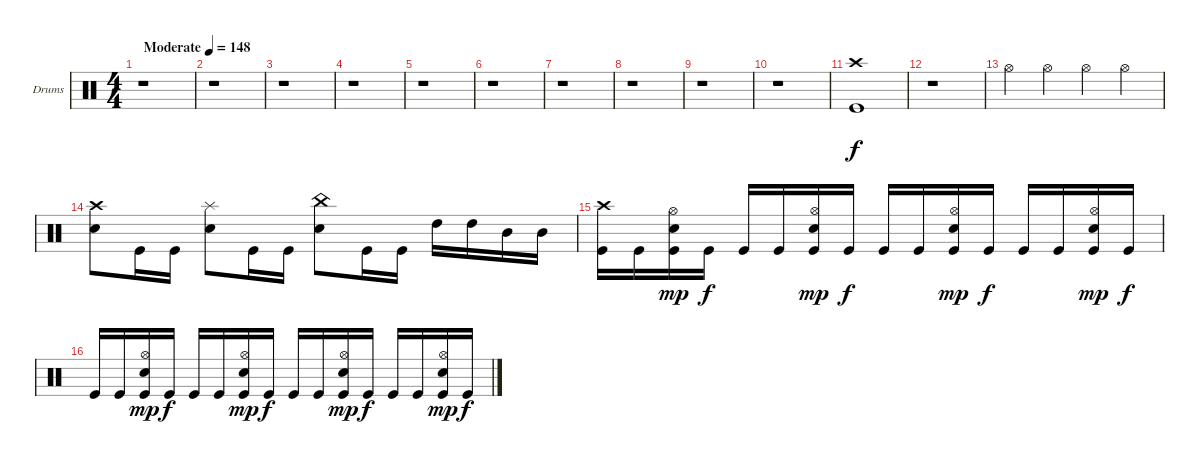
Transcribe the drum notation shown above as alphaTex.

\bracketExtendMode groupsimilarinstruments
\firstSystemTrackNameOrientation horizontal
\otherSystemsTrackNameOrientation horizontal
\track ("Drumkit" "Drums") {instrument percussion}
\staff {score}
\articulation defaults
\ts (4 4)
\beaming (8 2 2 2 2)
\tempo (148 "Moderate")
\clef neutral
\ks c
r.1{dy f} |
r.1 |
r.1 |
r.1 |
r.1 |
r.1 |
r.1 |
r.1 |
r.1 |
r.1 |
("Crash high (hit)" "Kick (hit)").1 |
r.1 |
"Hi-Hat (open)".4 "Hi-Hat (open)".4 "Hi-Hat (open)".4 "Hi-Hat (open)".4 |
("Crash high (hit)" "Snare (hit) 2").8 "Kick (hit)".16 "Kick (hit)".16 ("Splash (hit)" "Snare (hit) 2").8 "Kick (hit)".16 "Kick (hit)".16 ("China (hit)" "Snare (hit) 2").8 "Kick (hit)".16 "Kick (hit)".16 "High Tom (hit)".16 "High Tom (hit)".16 "Mid Tom (hit)".16 "Mid Tom (hit)".16 |
("Crash high (hit)" "Kick (hit)").16 "Kick (hit)".16 ("Hi-Hat (open)" "Kick (hit)" "Snare (hit) 2").16{dy mp} "Kick (hit)".16{dy f} "Kick (hit)".16 "Kick (hit)".16 ("Hi-Hat (open)" "Kick (hit)" "Snare (hit) 2").16{dy mp} "Kick (hit)".16{dy f} "Kick (hit)".16 "Kick (hit)".16 ("Hi-Hat (open)" "Kick (hit)" "Snare (hit) 2").16{dy mp} "Kick (hit)".16{dy f} "Kick (hit)".16 "Kick (hit)".16 ("Hi-Hat (open)" "Kick (hit)" "Snare (hit) 2").16{dy mp} "Kick (hit)".16{dy f} |
"Kick (hit)".16 "Kick (hit)".16 ("Hi-Hat (open)" "Kick (hit)" "Snare (hit) 2").16{dy mp} "Kick (hit)".16{dy f} "Kick (hit)".16 "Kick (hit)".16 ("Hi-Hat (open)" "Kick (hit)" "Snare (hit) 2").16{dy mp} "Kick (hit)".16{dy f} "Kick (hit)".16 "Kick (hit)".16 ("Hi-Hat (open)" "Kick (hit)" "Snare (hit) 2").16{dy mp} "Kick (hit)".16{dy f} "Kick (hit)".16 "Kick (hit)".16 ("Hi-Hat (open)" "Kick (hit)" "Snare (hit) 2").16{dy mp} "Kick (hit)".16{dy f}
